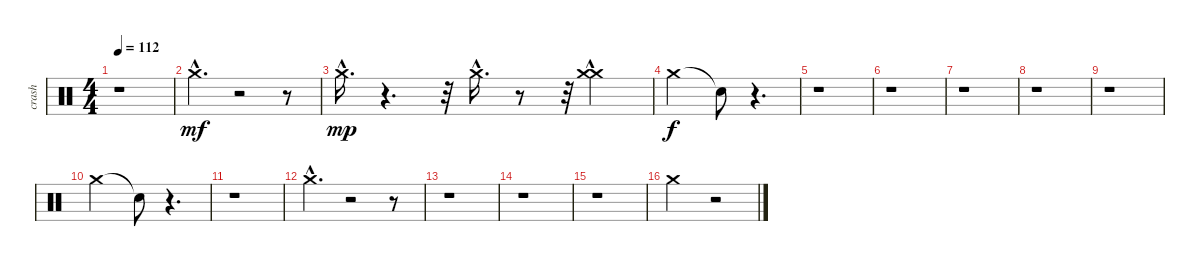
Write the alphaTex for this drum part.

\track ("crash" "crash") {instrument percussion}
\staff {score}
\articulation defaults
\ts (4 4)
\tempo 112
\clef neutral
\ks c
r.1{dy f} |
"Crash medium (hit)"{hac}.4{d dy mf} r.2 r.8 |
"Crash medium (hit)"{hac}.16{d dy mp} r.4{d} r.32 "Crash medium (hit)"{hac}.16{d} r.8 r.32 ("Crash medium (hit)" "Crash medium (hit)"{hac}).4 |
"Crash medium (hit)".2{dy f} "Snare (hit)"{t}.8 r.4{d} |
r.1 |
r.1 |
r.1 |
r.1 |
r.1 |
"Crash medium (hit)".2 "Snare (hit)"{t}.8 r.4{d} |
r.1 |
"Crash medium (hit)"{hac}.4{d} r.2 r.8 |
r.1 |
r.1 |
r.1 |
"Crash medium (hit)".2 r.2
